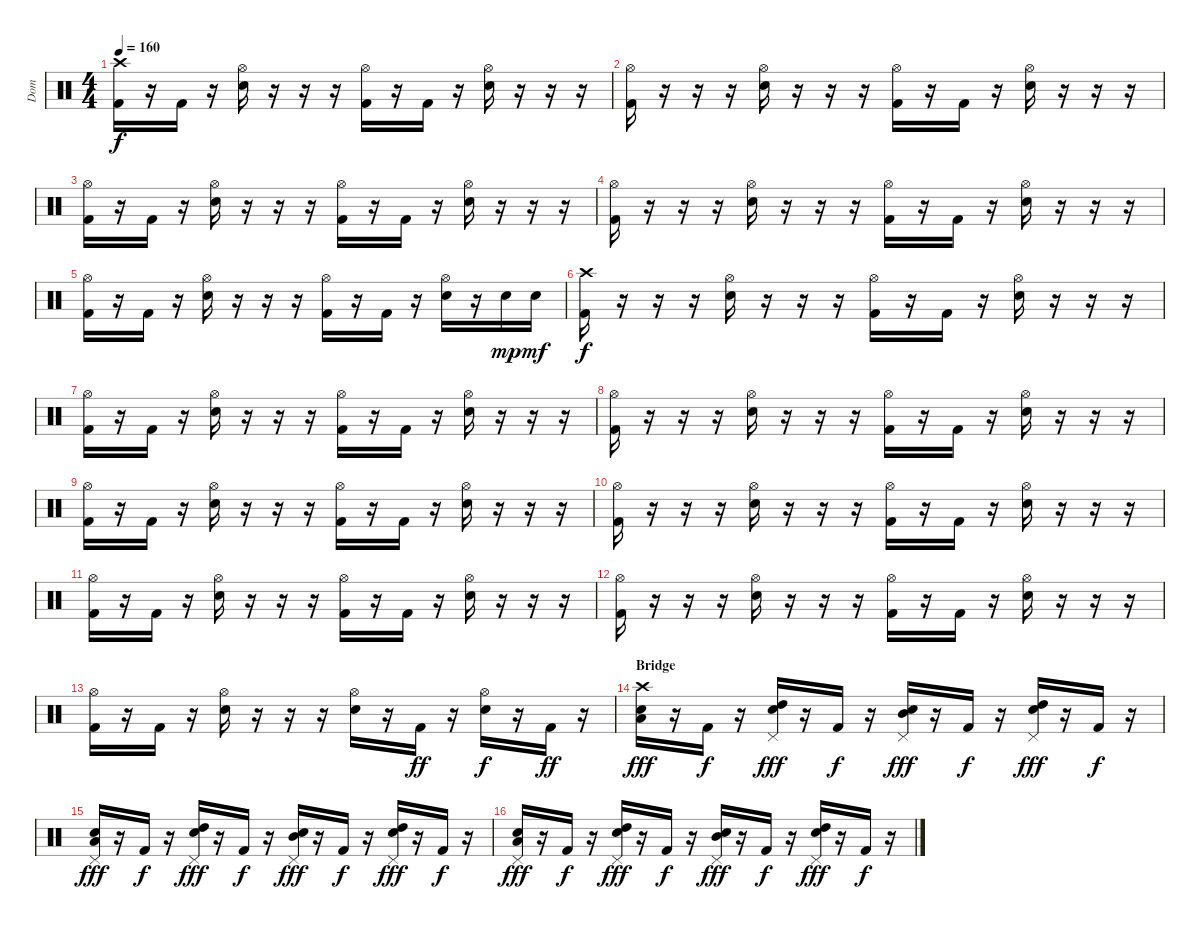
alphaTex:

\track ("Dom" "Dom") {instrument percussion}
\staff {score}
\articulation defaults
\ts (4 4)
\tempo 160
\clef neutral
\ks c
("Crash high (hit)" "Kick (hit) 2").16{dy f} r.16 "Kick (hit) 2".16 r.16 ("Hi-Hat (open)" "Electric Snare (hit)").16 r.16 r.16 r.16 ("Hi-Hat (open)" "Kick (hit) 2").16 r.16 "Kick (hit) 2".16 r.16 ("Hi-Hat (open)" "Electric Snare (hit)").16 r.16 r.16 r.16 |
("Hi-Hat (open)" "Kick (hit) 2").16 r.16 r.16 r.16 ("Hi-Hat (open)" "Electric Snare (hit)").16 r.16 r.16 r.16 ("Hi-Hat (open)" "Kick (hit) 2").16 r.16 "Kick (hit) 2".16 r.16 ("Hi-Hat (open)" "Electric Snare (hit)").16 r.16 r.16 r.16 |
("Hi-Hat (open)" "Kick (hit) 2").16 r.16 "Kick (hit) 2".16 r.16 ("Hi-Hat (open)" "Electric Snare (hit)").16 r.16 r.16 r.16 ("Hi-Hat (open)" "Kick (hit) 2").16 r.16 "Kick (hit) 2".16 r.16 ("Hi-Hat (open)" "Electric Snare (hit)").16 r.16 r.16 r.16 |
("Hi-Hat (open)" "Kick (hit) 2").16 r.16 r.16 r.16 ("Hi-Hat (open)" "Electric Snare (hit)").16 r.16 r.16 r.16 ("Hi-Hat (open)" "Kick (hit) 2").16 r.16 "Kick (hit) 2".16 r.16 ("Hi-Hat (open)" "Electric Snare (hit)").16 r.16 r.16 r.16 |
("Hi-Hat (open)" "Kick (hit) 2").16 r.16 "Kick (hit) 2".16 r.16 ("Hi-Hat (open)" "Electric Snare (hit)").16 r.16 r.16 r.16 ("Hi-Hat (open)" "Kick (hit) 2").16 r.16 "Kick (hit) 2".16 r.16 ("Hi-Hat (open)" "Electric Snare (hit)").16 r.16 "Electric Snare (hit)".16{dy mp} "Electric Snare (hit)".16{dy mf} |
("Crash high (hit)" "Kick (hit) 2").16{dy f} r.16 r.16 r.16 ("Hi-Hat (open)" "Electric Snare (hit)").16 r.16 r.16 r.16 ("Hi-Hat (open)" "Kick (hit) 2").16 r.16 "Kick (hit) 2".16 r.16 ("Hi-Hat (open)" "Electric Snare (hit)").16 r.16 r.16 r.16 |
("Hi-Hat (open)" "Kick (hit) 2").16 r.16 "Kick (hit) 2".16 r.16 ("Hi-Hat (open)" "Electric Snare (hit)").16 r.16 r.16 r.16 ("Hi-Hat (open)" "Kick (hit) 2").16 r.16 "Kick (hit) 2".16 r.16 ("Hi-Hat (open)" "Electric Snare (hit)").16 r.16 r.16 r.16 |
("Hi-Hat (open)" "Kick (hit) 2").16 r.16 r.16 r.16 ("Hi-Hat (open)" "Electric Snare (hit)").16 r.16 r.16 r.16 ("Hi-Hat (open)" "Kick (hit) 2").16 r.16 "Kick (hit) 2".16 r.16 ("Hi-Hat (open)" "Electric Snare (hit)").16 r.16 r.16 r.16 |
("Hi-Hat (open)" "Kick (hit) 2").16 r.16 "Kick (hit) 2".16 r.16 ("Hi-Hat (open)" "Electric Snare (hit)").16 r.16 r.16 r.16 ("Hi-Hat (open)" "Kick (hit) 2").16 r.16 "Kick (hit) 2".16 r.16 ("Hi-Hat (open)" "Electric Snare (hit)").16 r.16 r.16 r.16 |
("Hi-Hat (open)" "Kick (hit) 2").16 r.16 r.16 r.16 ("Hi-Hat (open)" "Electric Snare (hit)").16 r.16 r.16 r.16 ("Hi-Hat (open)" "Kick (hit) 2").16 r.16 "Kick (hit) 2".16 r.16 ("Hi-Hat (open)" "Electric Snare (hit)").16 r.16 r.16 r.16 |
("Hi-Hat (open)" "Kick (hit) 2").16 r.16 "Kick (hit) 2".16 r.16 ("Hi-Hat (open)" "Electric Snare (hit)").16 r.16 r.16 r.16 ("Hi-Hat (open)" "Kick (hit) 2").16 r.16 "Kick (hit) 2".16 r.16 ("Hi-Hat (open)" "Electric Snare (hit)").16 r.16 r.16 r.16 |
("Hi-Hat (open)" "Kick (hit) 2").16 r.16 r.16 r.16 ("Hi-Hat (open)" "Electric Snare (hit)").16 r.16 r.16 r.16 ("Hi-Hat (open)" "Kick (hit) 2").16 r.16 "Kick (hit) 2".16 r.16 ("Hi-Hat (open)" "Electric Snare (hit)").16 r.16 r.16 r.16 |
("Hi-Hat (open)" "Kick (hit) 2").16 r.16 "Kick (hit) 2".16 r.16 ("Hi-Hat (open)" "Electric Snare (hit)").16 r.16 r.16 r.16 ("Hi-Hat (open)" "Electric Snare (hit)").16 r.16 "Kick (hit) 2".16{dy ff} r.16 ("Hi-Hat (open)" "Electric Snare (hit)").16{dy f} r.16 "Kick (hit) 2".16{dy ff} r.16 |
\section ("" "Bridge")
("Crash high (hit)" "Low Tom (hit)" "Electric Snare (hit)").16{dy fff} r.16 "Kick (hit) 2".16{dy f} r.16 ("Pedal Hi-Hat (hit)" "High Tom (hit)" "Electric Snare (hit)").16{dy fff} r.16 "Kick (hit) 2".16{dy f} r.16 ("Pedal Hi-Hat (hit)" "Mid Tom (hit)" "Electric Snare (hit)").16{dy fff} r.16 "Kick (hit) 2".16{dy f} r.16 ("Pedal Hi-Hat (hit)" "High Tom (hit)" "Electric Snare (hit)").16{dy fff} r.16 "Kick (hit) 2".16{dy f} r.16 |
("Pedal Hi-Hat (hit)" "Low Tom (hit)" "Electric Snare (hit)").16{dy fff} r.16 "Kick (hit) 2".16{dy f} r.16 ("Pedal Hi-Hat (hit)" "High Tom (hit)" "Electric Snare (hit)").16{dy fff} r.16 "Kick (hit) 2".16{dy f} r.16 ("Pedal Hi-Hat (hit)" "Mid Tom (hit)" "Electric Snare (hit)").16{dy fff} r.16 "Kick (hit) 2".16{dy f} r.16 ("Pedal Hi-Hat (hit)" "High Tom (hit)" "Electric Snare (hit)").16{dy fff} r.16 "Kick (hit) 2".16{dy f} r.16 |
("Pedal Hi-Hat (hit)" "Low Tom (hit)" "Electric Snare (hit)").16{dy fff} r.16 "Kick (hit) 2".16{dy f} r.16 ("Pedal Hi-Hat (hit)" "High Tom (hit)" "Electric Snare (hit)").16{dy fff} r.16 "Kick (hit) 2".16{dy f} r.16 ("Pedal Hi-Hat (hit)" "Mid Tom (hit)" "Electric Snare (hit)").16{dy fff} r.16 "Kick (hit) 2".16{dy f} r.16 ("Pedal Hi-Hat (hit)" "High Tom (hit)" "Electric Snare (hit)").16{dy fff} r.16 "Kick (hit) 2".16{dy f} r.16
